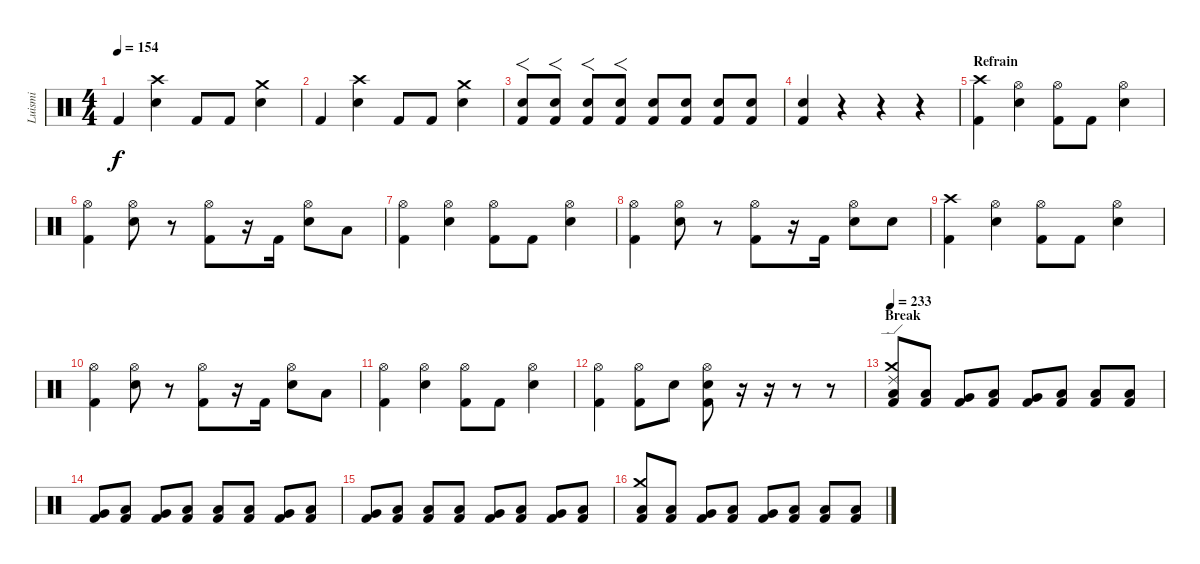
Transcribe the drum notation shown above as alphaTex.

\track ("Luismi" "Luismi") {instrument percussion}
\staff {score}
\articulation defaults
\ts (4 4)
\tempo 154
\clef neutral
\ks c "Kick (hit) 2".4{dy f}
("Crash high (hit)" "Electric Snare (hit)").4 "Kick (hit) 2".8 "Kick (hit) 2".8 ("Crash medium (hit)" "Electric Snare (hit)").4 |
"Kick (hit) 2".4 ("Crash high (hit)" "Electric Snare (hit)").4 "Kick (hit) 2".8 "Kick (hit) 2".8 ("Crash medium (hit)" "Electric Snare (hit)").4 |
("Electric Snare (hit)" "Kick (hit) 2").8{f} ("Electric Snare (hit)" "Kick (hit) 2").8{f} ("Electric Snare (hit)" "Kick (hit) 2").8{f} ("Electric Snare (hit)" "Kick (hit) 2").8{f} ("Electric Snare (hit)" "Kick (hit) 2").8 ("Electric Snare (hit)" "Kick (hit) 2").8 ("Electric Snare (hit)" "Kick (hit) 2").8 ("Electric Snare (hit)" "Kick (hit) 2").8 |
("Electric Snare (hit)" "Kick (hit) 2").4 r.4 r.4 r.4 |
\section ("" "Refrain")
("Crash high (hit)" "Kick (hit) 2").4 ("Hi-Hat (open)" "Electric Snare (hit)").4 ("Hi-Hat (open)" "Kick (hit) 2").8 "Kick (hit) 2".8 ("Hi-Hat (open)" "Electric Snare (hit)").4 |
("Hi-Hat (open)" "Kick (hit) 2").4 ("Hi-Hat (open)" "Electric Snare (hit)").8 r.8 ("Hi-Hat (open)" "Kick (hit) 2").8 r.16 "Kick (hit) 2".16 ("Hi-Hat (open)" "Electric Snare (hit)").8 "Low Floor Tom (hit)".8 |
("Hi-Hat (open)" "Kick (hit) 2").4 ("Hi-Hat (open)" "Electric Snare (hit)").4 ("Hi-Hat (open)" "Kick (hit) 2").8 "Kick (hit) 2".8 ("Hi-Hat (open)" "Electric Snare (hit)").4 |
("Hi-Hat (open)" "Kick (hit) 2").4 ("Hi-Hat (open)" "Electric Snare (hit)").8 r.8 ("Hi-Hat (open)" "Kick (hit) 2").8 r.16 "Kick (hit) 2".16 ("Hi-Hat (open)" "Electric Snare (hit)").8 "Electric Snare (hit)".8 |
("Crash high (hit)" "Kick (hit) 2").4 ("Hi-Hat (open)" "Electric Snare (hit)").4 ("Hi-Hat (open)" "Kick (hit) 2").8 "Kick (hit) 2".8 ("Hi-Hat (open)" "Electric Snare (hit)").4 |
("Hi-Hat (open)" "Kick (hit) 2").4 ("Hi-Hat (open)" "Electric Snare (hit)").8 r.8 ("Hi-Hat (open)" "Kick (hit) 2").8 r.16 "Kick (hit) 2".16 ("Hi-Hat (open)" "Electric Snare (hit)").8 "Low Floor Tom (hit)".8 |
("Hi-Hat (open)" "Kick (hit) 2").4 ("Hi-Hat (open)" "Electric Snare (hit)").4 ("Hi-Hat (open)" "Kick (hit) 2").8 "Kick (hit) 2".8 ("Hi-Hat (open)" "Electric Snare (hit)").4 |
("Hi-Hat (open)" "Kick (hit) 2").4 ("Hi-Hat (open)" "Kick (hit) 2").8 "Electric Snare (hit)".8 ("Hi-Hat (open)" "Electric Snare (hit)" "Kick (hit) 2").8 r.16 r.16 r.8 r.8 |
\section ("" "Break")
\tempo 230
\tempo 233
("Crash medium (hit)" "Ride (edge) 2" "Low Tom (hit)" "Kick (hit) 2").8 ("Low Floor Tom (hit)" "Kick (hit) 2").8 ("Very Low Tom (hit)" "Kick (hit) 2").8 ("Low Floor Tom (hit)" "Kick (hit) 2").8 ("Very Low Tom (hit)" "Kick (hit) 2").8 ("Low Floor Tom (hit)" "Kick (hit) 2").8 ("Low Tom (hit)" "Kick (hit) 2").8 ("Low Floor Tom (hit)" "Kick (hit) 2").8 |
("Very Low Tom (hit)" "Kick (hit) 2").8 ("Low Floor Tom (hit)" "Kick (hit) 2").8 ("Very Low Tom (hit)" "Kick (hit) 2").8 ("Low Floor Tom (hit)" "Kick (hit) 2").8 ("Low Tom (hit)" "Kick (hit) 2").8 ("Low Floor Tom (hit)" "Kick (hit) 2").8 ("Very Low Tom (hit)" "Kick (hit) 2").8 ("Low Floor Tom (hit)" "Kick (hit) 2").8 |
("Very Low Tom (hit)" "Kick (hit) 2").8 ("Low Floor Tom (hit)" "Kick (hit) 2").8 ("Low Tom (hit)" "Kick (hit) 2").8 ("Low Floor Tom (hit)" "Kick (hit) 2").8 ("Very Low Tom (hit)" "Kick (hit) 2").8 ("Low Floor Tom (hit)" "Kick (hit) 2").8 ("Very Low Tom (hit)" "Kick (hit) 2").8 ("Low Floor Tom (hit)" "Kick (hit) 2").8 |
("Crash medium (hit)" "Low Tom (hit)" "Kick (hit) 2").8 ("Low Floor Tom (hit)" "Kick (hit) 2").8 ("Very Low Tom (hit)" "Kick (hit) 2").8 ("Low Floor Tom (hit)" "Kick (hit) 2").8 ("Very Low Tom (hit)" "Kick (hit) 2").8 ("Low Floor Tom (hit)" "Kick (hit) 2").8 ("Low Tom (hit)" "Kick (hit) 2").8 ("Low Floor Tom (hit)" "Kick (hit) 2").8
